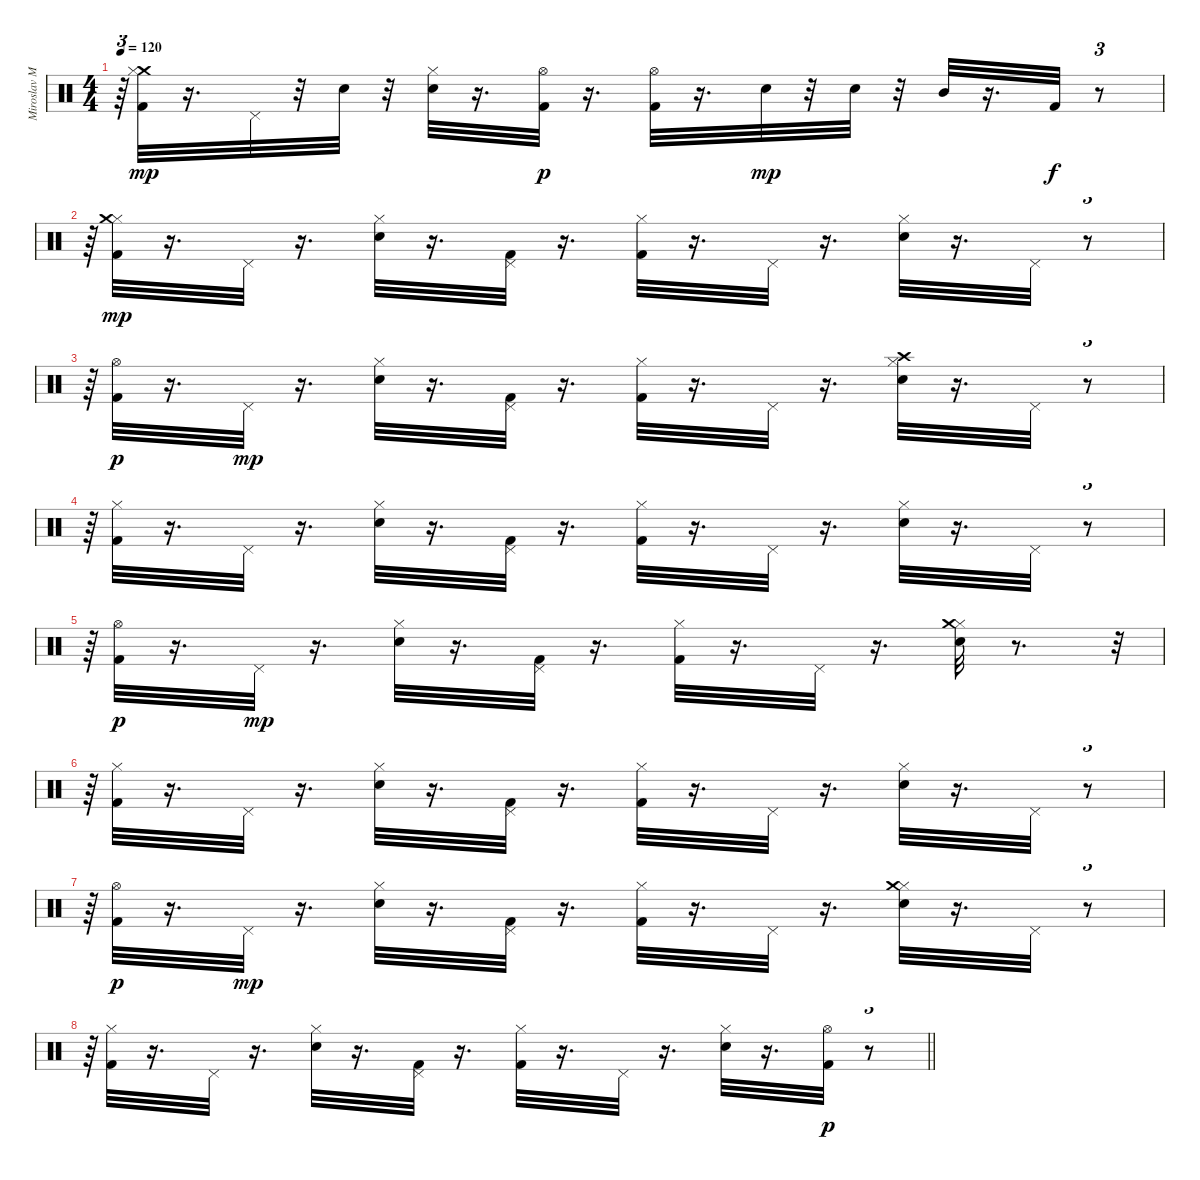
\track ("Miroslav Milatovic-Vicko-bubnjevi" "Miroslav M") {instrument percussion}
\staff {score}
\articulation defaults
\ts (4 4)
\tempo 120
\clef neutral
\ks c
r.64{tu (3 2) dy p} ("Crash medium (hit)" "Hi-Hat (closed)" "Kick (hit) 2").32{dy mp} r.16{d} "Pedal Hi-Hat (hit)".32 r.32 "Electric Snare (hit)".32 r.32 ("Hi-Hat (closed)" "Electric Snare (hit)").32 r.16{d} ("Hi-Hat (open)" "Kick (hit) 2").32{dy p} r.16{d} ("Hi-Hat (open)" "Kick (hit) 2").32 r.16{d} "Electric Snare (hit)".32{dy mp} r.32 "Electric Snare (hit)".32 r.32 "Mid Tom (hit)".32 r.16{d} "Kick (hit) 2".32{dy f} r.8{tu (3 2)} |
r.64{tu (3 2)} ("Hi-Hat (closed)" "Kick (hit) 2" "Crash medium (hit)").32{dy mp} r.16{d} "Pedal Hi-Hat (hit)".32 r.16{d} ("Hi-Hat (closed)" "Electric Snare (hit)").32 r.16{d} ("Pedal Hi-Hat (hit)" "Kick (hit) 2").32 r.16{d} ("Hi-Hat (closed)" "Kick (hit) 2").32 r.16{d} "Pedal Hi-Hat (hit)".32 r.16{d} ("Hi-Hat (closed)" "Electric Snare (hit)").32 r.16{d} "Pedal Hi-Hat (hit)".32 r.8{tu (3 2)} |
r.64{tu (3 2)} ("Kick (hit) 2" "Hi-Hat (open)").32{dy p} r.16{d} "Pedal Hi-Hat (hit)".32{dy mp} r.16{d} ("Electric Snare (hit)" "Hi-Hat (closed)").32 r.16{d} ("Kick (hit) 2" "Pedal Hi-Hat (hit)").32 r.16{d} ("Kick (hit) 2" "Hi-Hat (closed)").32 r.16{d} "Pedal Hi-Hat (hit)".32 r.16{d} ("Electric Snare (hit)" "Hi-Hat (closed)" "Crash high (hit)").32 r.16{d} "Pedal Hi-Hat (hit)".32 r.8{tu (3 2)} |
r.64{tu (3 2)} ("Kick (hit) 2" "Hi-Hat (closed)").32 r.16{d} "Pedal Hi-Hat (hit)".32 r.16{d} ("Electric Snare (hit)" "Hi-Hat (closed)").32 r.16{d} ("Kick (hit) 2" "Pedal Hi-Hat (hit)").32 r.16{d} ("Kick (hit) 2" "Hi-Hat (closed)").32 r.16{d} "Pedal Hi-Hat (hit)".32 r.16{d} ("Electric Snare (hit)" "Hi-Hat (closed)").32 r.16{d} "Pedal Hi-Hat (hit)".32 r.8{tu (3 2)} |
r.64{tu (3 2)} ("Kick (hit) 2" "Hi-Hat (open)").32{dy p} r.16{d} "Pedal Hi-Hat (hit)".32{dy mp} r.16{d} ("Hi-Hat (closed)" "Electric Snare (hit)").32 r.16{d} ("Pedal Hi-Hat (hit)" "Kick (hit) 2").32 r.16{d} ("Hi-Hat (closed)" "Kick (hit) 2").32 r.16{d} "Pedal Hi-Hat (hit)".32 r.16{d} ("Hi-Hat (closed)" "Electric Snare (hit)" "Crash medium (hit)").32 r.8{d} r.32{tu (3 2)} |
r.64{tu (3 2)} ("Kick (hit) 2" "Hi-Hat (closed)").32 r.16{d} "Pedal Hi-Hat (hit)".32 r.16{d} ("Electric Snare (hit)" "Hi-Hat (closed)").32 r.16{d} ("Kick (hit) 2" "Pedal Hi-Hat (hit)").32 r.16{d} ("Kick (hit) 2" "Hi-Hat (closed)").32 r.16{d} "Pedal Hi-Hat (hit)".32 r.16{d} ("Electric Snare (hit)" "Hi-Hat (closed)").32 r.16{d} "Pedal Hi-Hat (hit)".32 r.8{tu (3 2)} |
r.64{tu (3 2)} ("Kick (hit) 2" "Hi-Hat (open)").32{dy p} r.16{d} "Pedal Hi-Hat (hit)".32{dy mp} r.16{d} ("Hi-Hat (closed)" "Electric Snare (hit)").32 r.16{d} ("Pedal Hi-Hat (hit)" "Kick (hit) 2").32 r.16{d} ("Hi-Hat (closed)" "Kick (hit) 2").32 r.16{d} "Pedal Hi-Hat (hit)".32 r.16{d} ("Hi-Hat (closed)" "Electric Snare (hit)" "Crash medium (hit)").32 r.16{d} "Pedal Hi-Hat (hit)".32 r.8{tu (3 2)} |
\barLineRight lightlight
r.64{tu (3 2)} ("Hi-Hat (closed)" "Kick (hit) 2").32 r.16{d} "Pedal Hi-Hat (hit)".32 r.16{d} ("Hi-Hat (closed)" "Electric Snare (hit)").32 r.16{d} ("Pedal Hi-Hat (hit)" "Kick (hit) 2").32 r.16{d} ("Hi-Hat (closed)" "Kick (hit) 2").32 r.16{d} "Pedal Hi-Hat (hit)".32 r.16{d} ("Hi-Hat (closed)" "Electric Snare (hit)").32 r.16{d} ("Kick (hit) 2" "Hi-Hat (open)").32{dy p} r.8{tu (3 2)}
